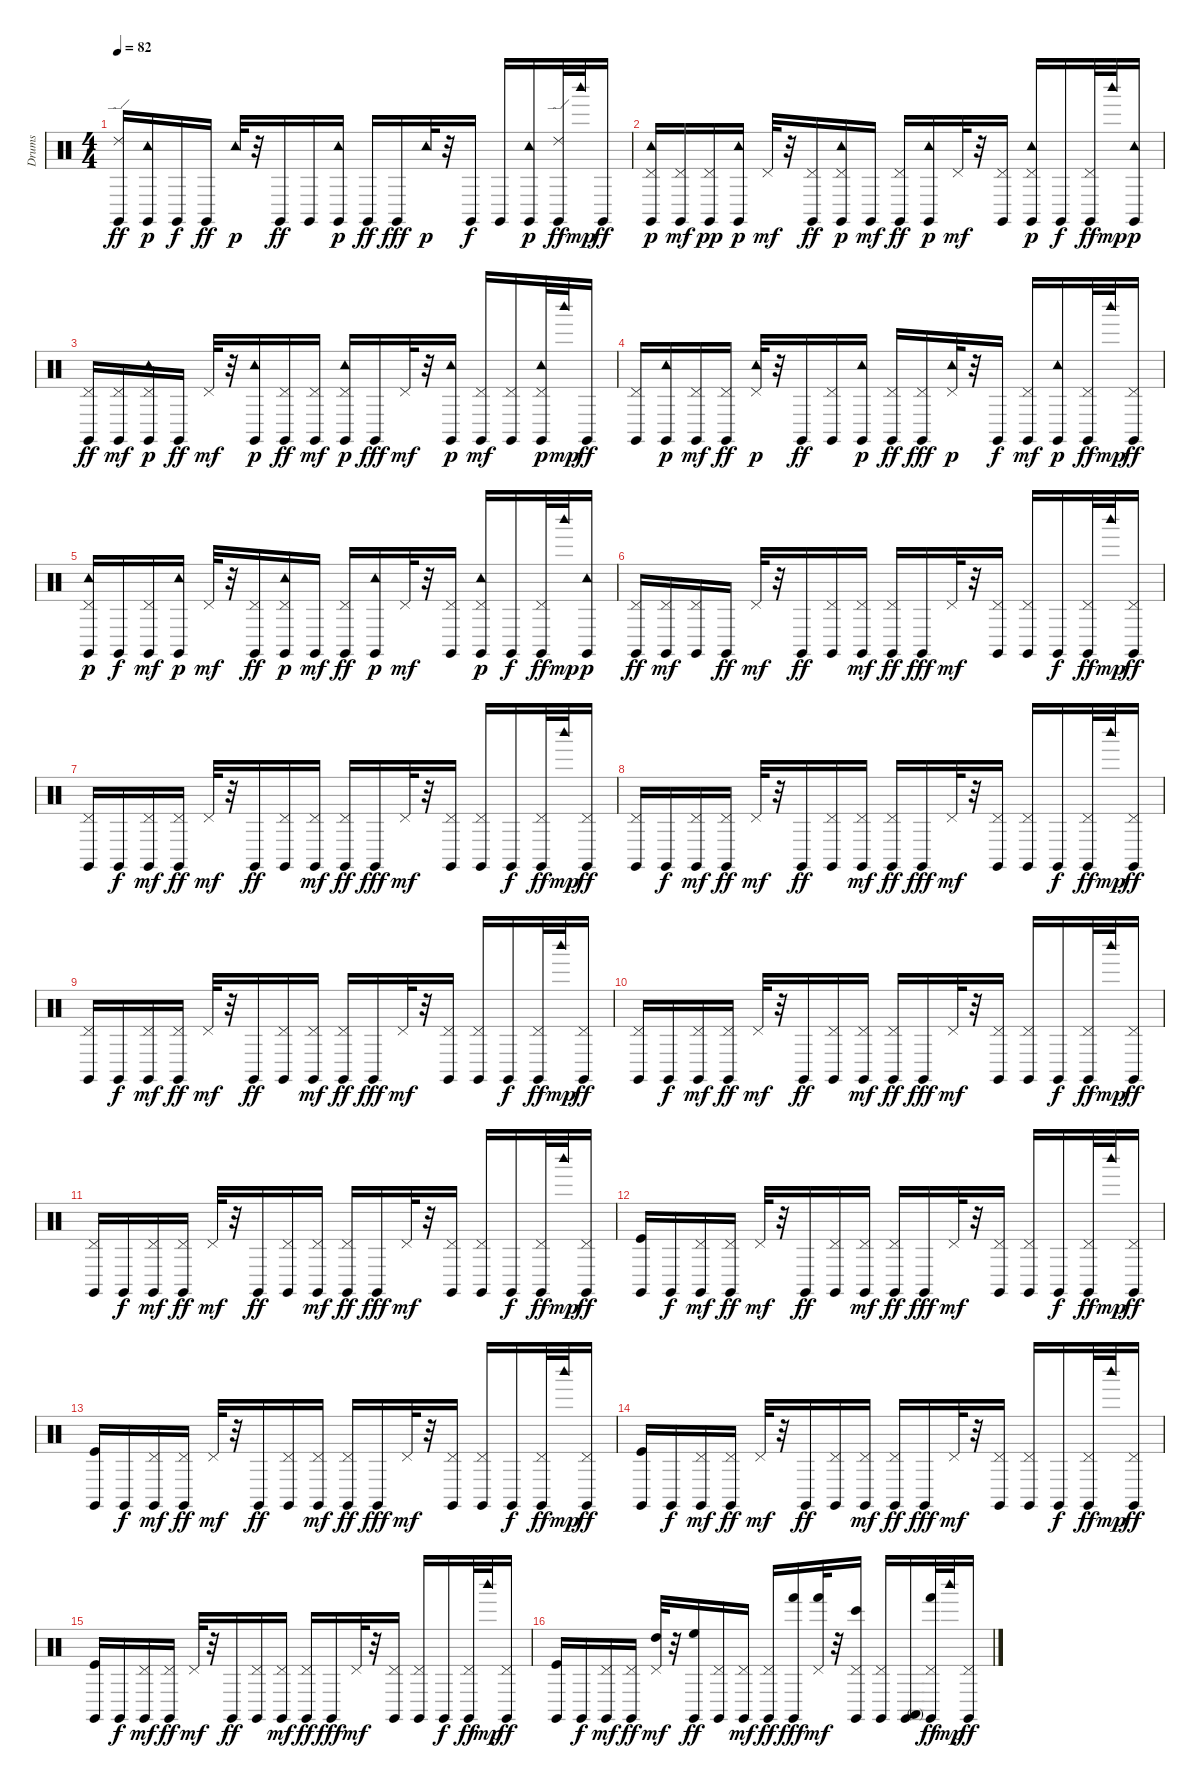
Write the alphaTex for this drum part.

\track ("Drums" "Drums") {instrument percussion}
\staff {score}
\articulation defaults
\ts (4 4)
\tempo 82
\clef neutral
\ks c
("Ride (edge) 2" "Claves (hit)").16{dy ff} ("Claves (hit)" "Tambourine (hit)").16{dy p} "Claves (hit)".16{dy f} "Claves (hit)".16{dy ff} "Tambourine (hit)".32{dy p} r.32 "Claves (hit)".16{dy ff} "Claves (hit)".16 ("Claves (hit)" "Tambourine (hit)").16{dy p} "Claves (hit)".16{dy ff} "Claves (hit)".16{dy fff} "Tambourine (hit)".32{dy p} r.32 "Claves (hit)".16{dy f} "Claves (hit)".16 ("Tambourine (hit)" "Claves (hit)").16{dy p} ("Ride (edge) 2" "Claves (hit)").32{dy ff} "Woodblock high (hit)".32{dy mp} "Claves (hit)".16{dy ff} |
("Pedal Hi-Hat (hit)" "Claves (hit)" "Tambourine (hit)").16{dy p} ("Pedal Hi-Hat (hit)" "Claves (hit)").16{dy mf} ("Pedal Hi-Hat (hit)" "Claves (hit)").16{dy pp} ("Claves (hit)" "Tambourine (hit)").16{dy p} "Pedal Hi-Hat (hit)".32{dy mf} r.32 ("Pedal Hi-Hat (hit)" "Claves (hit)").16{dy ff} ("Pedal Hi-Hat (hit)" "Claves (hit)" "Tambourine (hit)").16{dy p} "Claves (hit)".16{dy mf} ("Pedal Hi-Hat (hit)" "Claves (hit)").16{dy ff} ("Claves (hit)" "Tambourine (hit)").16{dy p} "Pedal Hi-Hat (hit)".32{dy mf} r.32 ("Pedal Hi-Hat (hit)" "Claves (hit)").16 ("Pedal Hi-Hat (hit)" "Claves (hit)" "Tambourine (hit)").16{dy p} "Claves (hit)".16{dy f} ("Pedal Hi-Hat (hit)" "Claves (hit)").32{dy ff} "Woodblock high (hit)".32{dy mp} ("Claves (hit)" "Tambourine (hit)").16{dy p} |
("Pedal Hi-Hat (hit)" "Claves (hit)").16{dy ff} ("Pedal Hi-Hat (hit)" "Claves (hit)").16{dy mf} ("Pedal Hi-Hat (hit)" "Claves (hit)" "Tambourine (hit)").16{dy p} "Claves (hit)".16{dy ff} "Pedal Hi-Hat (hit)".32{dy mf} r.32 ("Claves (hit)" "Tambourine (hit)").16{dy p} ("Pedal Hi-Hat (hit)" "Claves (hit)").16{dy ff} ("Pedal Hi-Hat (hit)" "Claves (hit)").16{dy mf} ("Pedal Hi-Hat (hit)" "Claves (hit)" "Tambourine (hit)").16{dy p} "Claves (hit)".16{dy fff} "Pedal Hi-Hat (hit)".32{dy mf} r.32 ("Claves (hit)" "Tambourine (hit)").16{dy p} ("Pedal Hi-Hat (hit)" "Claves (hit)").16{dy mf} ("Pedal Hi-Hat (hit)" "Claves (hit)").16 ("Pedal Hi-Hat (hit)" "Claves (hit)" "Tambourine (hit)").32{dy p} "Woodblock high (hit)".32{dy mp} "Claves (hit)".16{dy ff} |
("Pedal Hi-Hat (hit)" "Claves (hit)").16 ("Claves (hit)" "Tambourine (hit)").16{dy p} ("Pedal Hi-Hat (hit)" "Claves (hit)").16{dy mf} ("Pedal Hi-Hat (hit)" "Claves (hit)").16{dy ff} ("Pedal Hi-Hat (hit)" "Tambourine (hit)").32{dy p} r.32 "Claves (hit)".16{dy ff} ("Pedal Hi-Hat (hit)" "Claves (hit)").16 ("Claves (hit)" "Tambourine (hit)").16{dy p} ("Pedal Hi-Hat (hit)" "Claves (hit)").16{dy ff} ("Pedal Hi-Hat (hit)" "Claves (hit)").16{dy fff} ("Pedal Hi-Hat (hit)" "Tambourine (hit)").32{dy p} r.32 "Claves (hit)".16{dy f} ("Pedal Hi-Hat (hit)" "Claves (hit)").16{dy mf} ("Claves (hit)" "Tambourine (hit)").16{dy p} ("Pedal Hi-Hat (hit)" "Claves (hit)").32{dy ff} "Woodblock high (hit)".32{dy mp} ("Pedal Hi-Hat (hit)" "Claves (hit)").16{dy ff} |
("Pedal Hi-Hat (hit)" "Claves (hit)" "Tambourine (hit)").16{dy p} "Claves (hit)".16{dy f} ("Pedal Hi-Hat (hit)" "Claves (hit)").16{dy mf} ("Claves (hit)" "Tambourine (hit)").16{dy p} "Pedal Hi-Hat (hit)".32{dy mf} r.32 ("Pedal Hi-Hat (hit)" "Claves (hit)").16{dy ff} ("Pedal Hi-Hat (hit)" "Claves (hit)" "Tambourine (hit)").16{dy p} "Claves (hit)".16{dy mf} ("Pedal Hi-Hat (hit)" "Claves (hit)").16{dy ff} ("Claves (hit)" "Tambourine (hit)").16{dy p} "Pedal Hi-Hat (hit)".32{dy mf} r.32 ("Pedal Hi-Hat (hit)" "Claves (hit)").16 ("Pedal Hi-Hat (hit)" "Claves (hit)" "Tambourine (hit)").16{dy p} "Claves (hit)".16{dy f} ("Pedal Hi-Hat (hit)" "Claves (hit)").32{dy ff} "Woodblock high (hit)".32{dy mp} ("Claves (hit)" "Tambourine (hit)").16{dy p} |
("Pedal Hi-Hat (hit)" "Claves (hit)").16{dy ff} ("Pedal Hi-Hat (hit)" "Claves (hit)").16{dy mf} ("Pedal Hi-Hat (hit)" "Claves (hit)").16 "Claves (hit)".16{dy ff} "Pedal Hi-Hat (hit)".32{dy mf} r.32 "Claves (hit)".16{dy ff} ("Pedal Hi-Hat (hit)" "Claves (hit)").16 ("Pedal Hi-Hat (hit)" "Claves (hit)").16{dy mf} ("Pedal Hi-Hat (hit)" "Claves (hit)").16{dy ff} "Claves (hit)".16{dy fff} "Pedal Hi-Hat (hit)".32{dy mf} r.32 ("Pedal Hi-Hat (hit)" "Claves (hit)").16 ("Pedal Hi-Hat (hit)" "Claves (hit)").16 "Claves (hit)".16{dy f} ("Pedal Hi-Hat (hit)" "Claves (hit)").32{dy ff} "Woodblock high (hit)".32{dy mp} ("Pedal Hi-Hat (hit)" "Claves (hit)").16{dy ff} |
("Pedal Hi-Hat (hit)" "Claves (hit)").16 "Claves (hit)".16{dy f} ("Pedal Hi-Hat (hit)" "Claves (hit)").16{dy mf} ("Pedal Hi-Hat (hit)" "Claves (hit)").16{dy ff} "Pedal Hi-Hat (hit)".32{dy mf} r.32 "Claves (hit)".16{dy ff} ("Pedal Hi-Hat (hit)" "Claves (hit)").16 ("Pedal Hi-Hat (hit)" "Claves (hit)").16{dy mf} ("Pedal Hi-Hat (hit)" "Claves (hit)").16{dy ff} "Claves (hit)".16{dy fff} "Pedal Hi-Hat (hit)".32{dy mf} r.32 ("Pedal Hi-Hat (hit)" "Claves (hit)").16 ("Pedal Hi-Hat (hit)" "Claves (hit)").16 "Claves (hit)".16{dy f} ("Pedal Hi-Hat (hit)" "Claves (hit)").32{dy ff} "Woodblock high (hit)".32{dy mp} ("Pedal Hi-Hat (hit)" "Claves (hit)").16{dy ff} |
("Pedal Hi-Hat (hit)" "Claves (hit)").16 "Claves (hit)".16{dy f} ("Pedal Hi-Hat (hit)" "Claves (hit)").16{dy mf} ("Pedal Hi-Hat (hit)" "Claves (hit)").16{dy ff} "Pedal Hi-Hat (hit)".32{dy mf} r.32 "Claves (hit)".16{dy ff} ("Pedal Hi-Hat (hit)" "Claves (hit)").16 ("Pedal Hi-Hat (hit)" "Claves (hit)").16{dy mf} ("Pedal Hi-Hat (hit)" "Claves (hit)").16{dy ff} "Claves (hit)".16{dy fff} "Pedal Hi-Hat (hit)".32{dy mf} r.32 ("Pedal Hi-Hat (hit)" "Claves (hit)").16 ("Pedal Hi-Hat (hit)" "Claves (hit)").16 "Claves (hit)".16{dy f} ("Pedal Hi-Hat (hit)" "Claves (hit)").32{dy ff} "Woodblock high (hit)".32{dy mp} ("Pedal Hi-Hat (hit)" "Claves (hit)").16{dy ff} |
("Pedal Hi-Hat (hit)" "Claves (hit)").16 "Claves (hit)".16{dy f} ("Pedal Hi-Hat (hit)" "Claves (hit)").16{dy mf} ("Pedal Hi-Hat (hit)" "Claves (hit)").16{dy ff} "Pedal Hi-Hat (hit)".32{dy mf} r.32 "Claves (hit)".16{dy ff} ("Pedal Hi-Hat (hit)" "Claves (hit)").16 ("Pedal Hi-Hat (hit)" "Claves (hit)").16{dy mf} ("Pedal Hi-Hat (hit)" "Claves (hit)").16{dy ff} "Claves (hit)".16{dy fff} "Pedal Hi-Hat (hit)".32{dy mf} r.32 ("Pedal Hi-Hat (hit)" "Claves (hit)").16 ("Pedal Hi-Hat (hit)" "Claves (hit)").16 "Claves (hit)".16{dy f} ("Pedal Hi-Hat (hit)" "Claves (hit)").32{dy ff} "Woodblock high (hit)".32{dy mp} ("Pedal Hi-Hat (hit)" "Claves (hit)").16{dy ff} |
("Pedal Hi-Hat (hit)" "Claves (hit)").16 "Claves (hit)".16{dy f} ("Pedal Hi-Hat (hit)" "Claves (hit)").16{dy mf} ("Pedal Hi-Hat (hit)" "Claves (hit)").16{dy ff} "Pedal Hi-Hat (hit)".32{dy mf} r.32 "Claves (hit)".16{dy ff} ("Pedal Hi-Hat (hit)" "Claves (hit)").16 ("Pedal Hi-Hat (hit)" "Claves (hit)").16{dy mf} ("Pedal Hi-Hat (hit)" "Claves (hit)").16{dy ff} "Claves (hit)".16{dy fff} "Pedal Hi-Hat (hit)".32{dy mf} r.32 ("Pedal Hi-Hat (hit)" "Claves (hit)").16 ("Pedal Hi-Hat (hit)" "Claves (hit)").16 "Claves (hit)".16{dy f} ("Pedal Hi-Hat (hit)" "Claves (hit)").32{dy ff} "Woodblock high (hit)".32{dy mp} ("Pedal Hi-Hat (hit)" "Claves (hit)").16{dy ff} |
("Pedal Hi-Hat (hit)" "Claves (hit)").16 "Claves (hit)".16{dy f} ("Pedal Hi-Hat (hit)" "Claves (hit)").16{dy mf} ("Pedal Hi-Hat (hit)" "Claves (hit)").16{dy ff} "Pedal Hi-Hat (hit)".32{dy mf} r.32 "Claves (hit)".16{dy ff} ("Pedal Hi-Hat (hit)" "Claves (hit)").16 ("Pedal Hi-Hat (hit)" "Claves (hit)").16{dy mf} ("Pedal Hi-Hat (hit)" "Claves (hit)").16{dy ff} "Claves (hit)".16{dy fff} "Pedal Hi-Hat (hit)".32{dy mf} r.32 ("Pedal Hi-Hat (hit)" "Claves (hit)").16 ("Pedal Hi-Hat (hit)" "Claves (hit)").16 "Claves (hit)".16{dy f} ("Pedal Hi-Hat (hit)" "Claves (hit)").32{dy ff} "Woodblock high (hit)".32{dy mp} ("Pedal Hi-Hat (hit)" "Claves (hit)").16{dy ff} |
("Kick (hit)" "Claves (hit)").16 "Claves (hit)".16{dy f} ("Pedal Hi-Hat (hit)" "Claves (hit)").16{dy mf} ("Pedal Hi-Hat (hit)" "Claves (hit)").16{dy ff} "Pedal Hi-Hat (hit)".32{dy mf} r.32 "Claves (hit)".16{dy ff} ("Pedal Hi-Hat (hit)" "Claves (hit)").16 ("Pedal Hi-Hat (hit)" "Claves (hit)").16{dy mf} ("Pedal Hi-Hat (hit)" "Claves (hit)").16{dy ff} "Claves (hit)".16{dy fff} "Pedal Hi-Hat (hit)".32{dy mf} r.32 ("Pedal Hi-Hat (hit)" "Claves (hit)").16 ("Pedal Hi-Hat (hit)" "Claves (hit)").16 "Claves (hit)".16{dy f} ("Pedal Hi-Hat (hit)" "Claves (hit)").32{dy ff} "Woodblock high (hit)".32{dy mp} ("Pedal Hi-Hat (hit)" "Claves (hit)").16{dy ff} |
("Kick (hit)" "Claves (hit)").16 "Claves (hit)".16{dy f} ("Pedal Hi-Hat (hit)" "Claves (hit)").16{dy mf} ("Pedal Hi-Hat (hit)" "Claves (hit)").16{dy ff} "Pedal Hi-Hat (hit)".32{dy mf} r.32 "Claves (hit)".16{dy ff} ("Pedal Hi-Hat (hit)" "Claves (hit)").16 ("Pedal Hi-Hat (hit)" "Claves (hit)").16{dy mf} ("Pedal Hi-Hat (hit)" "Claves (hit)").16{dy ff} "Claves (hit)".16{dy fff} "Pedal Hi-Hat (hit)".32{dy mf} r.32 ("Pedal Hi-Hat (hit)" "Claves (hit)").16 ("Pedal Hi-Hat (hit)" "Claves (hit)").16 "Claves (hit)".16{dy f} ("Pedal Hi-Hat (hit)" "Claves (hit)").32{dy ff} "Woodblock high (hit)".32{dy mp} ("Pedal Hi-Hat (hit)" "Claves (hit)").16{dy ff} |
("Kick (hit)" "Claves (hit)").16 "Claves (hit)".16{dy f} ("Pedal Hi-Hat (hit)" "Claves (hit)").16{dy mf} ("Pedal Hi-Hat (hit)" "Claves (hit)").16{dy ff} "Pedal Hi-Hat (hit)".32{dy mf} r.32 "Claves (hit)".16{dy ff} ("Pedal Hi-Hat (hit)" "Claves (hit)").16 ("Pedal Hi-Hat (hit)" "Claves (hit)").16{dy mf} ("Pedal Hi-Hat (hit)" "Claves (hit)").16{dy ff} "Claves (hit)".16{dy fff} "Pedal Hi-Hat (hit)".32{dy mf} r.32 ("Pedal Hi-Hat (hit)" "Claves (hit)").16 ("Pedal Hi-Hat (hit)" "Claves (hit)").16 "Claves (hit)".16{dy f} ("Pedal Hi-Hat (hit)" "Claves (hit)").32{dy ff} "Woodblock high (hit)".32{dy mp} ("Pedal Hi-Hat (hit)" "Claves (hit)").16{dy ff} |
("Kick (hit)" "Claves (hit)").16 "Claves (hit)".16{dy f} ("Pedal Hi-Hat (hit)" "Claves (hit)").16{dy mf} ("Pedal Hi-Hat (hit)" "Claves (hit)").16{dy ff} "Pedal Hi-Hat (hit)".32{dy mf} r.32 "Claves (hit)".16{dy ff} ("Pedal Hi-Hat (hit)" "Claves (hit)").16 ("Pedal Hi-Hat (hit)" "Claves (hit)").16{dy mf} ("Pedal Hi-Hat (hit)" "Claves (hit)").16{dy ff} "Claves (hit)".16{dy fff} "Pedal Hi-Hat (hit)".32{dy mf} r.32 ("Pedal Hi-Hat (hit)" "Claves (hit)").16 ("Pedal Hi-Hat (hit)" "Claves (hit)").16 "Claves (hit)".16{dy f} ("Pedal Hi-Hat (hit)" "Claves (hit)").32{dy ff} "Woodblock high (hit)".32{dy mp} ("Pedal Hi-Hat (hit)" "Claves (hit)").16{dy ff} |
("Kick (hit)" "Claves (hit)").16 "Claves (hit)".16{dy f} ("Pedal Hi-Hat (hit)" "Claves (hit)").16{dy mf} ("Pedal Hi-Hat (hit)" "Claves (hit)").16{dy ff} ("High Tom (hit)" "Pedal Hi-Hat (hit)").32{dy mf} r.32 ("High Floor Tom (hit)" "Claves (hit)").16{dy ff} ("Pedal Hi-Hat (hit)" "Claves (hit)").16 ("Pedal Hi-Hat (hit)" "Claves (hit)").16{dy mf} ("Pedal Hi-Hat (hit)" "Claves (hit)").16{dy ff} ("Hand (hit)" "Claves (hit)").16{dy fff} ("Hand (hit)" "Pedal Hi-Hat (hit)").32{dy mf} r.32 ("Bongo High (hit)" "Pedal Hi-Hat (hit)" "Claves (hit)").16 ("Pedal Hi-Hat (hit)" "Claves (hit)").16 ("Conga high (mute)" "Claves (hit)").16 ("Hand (hit)" "Pedal Hi-Hat (hit)" "Claves (hit)").32{dy ff} "Woodblock high (hit)".32{dy mp} ("Pedal Hi-Hat (hit)" "Claves (hit)").16{dy ff}
